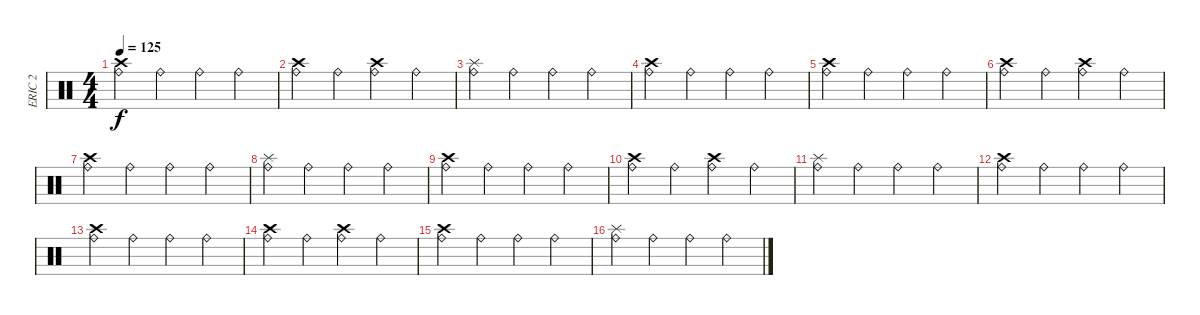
\track ("ERIC 2" "ERIC 2") {instrument percussion}
\staff {score}
\articulation defaults
\ts (4 4)
\tempo 125
\clef neutral
\ks c
("Crash high (hit)" "Ride (bell)").4{dy f} "Ride (bell)".4 "Ride (bell)".4 "Ride (bell)".4 |
("Crash high (hit)" "Ride (bell)").4 "Ride (bell)".4 ("Crash high (hit)" "Ride (bell)").4 "Ride (bell)".4 |
("Splash (hit)" "Ride (bell)").4 "Ride (bell)".4 "Ride (bell)".4 "Ride (bell)".4 |
("Crash high (hit)" "Ride (bell)").4 "Ride (bell)".4 "Ride (bell)".4 "Ride (bell)".4 |
("Crash high (hit)" "Ride (bell)").4 "Ride (bell)".4 "Ride (bell)".4 "Ride (bell)".4 |
("Crash high (hit)" "Ride (bell)").4 "Ride (bell)".4 ("Crash high (hit)" "Ride (bell)").4 "Ride (bell)".4 |
("Crash high (hit)" "Ride (bell)").4 "Ride (bell)".4 "Ride (bell)".4 "Ride (bell)".4 |
("Splash (hit)" "Ride (bell)").4 "Ride (bell)".4 "Ride (bell)".4 "Ride (bell)".4 |
("Crash high (hit)" "Ride (bell)").4 "Ride (bell)".4 "Ride (bell)".4 "Ride (bell)".4 |
("Crash high (hit)" "Ride (bell)").4 "Ride (bell)".4 ("Crash high (hit)" "Ride (bell)").4 "Ride (bell)".4 |
("Splash (hit)" "Ride (bell)").4 "Ride (bell)".4 "Ride (bell)".4 "Ride (bell)".4 |
("Crash high (hit)" "Ride (bell)").4 "Ride (bell)".4 "Ride (bell)".4 "Ride (bell)".4 |
("Crash high (hit)" "Ride (bell)").4 "Ride (bell)".4 "Ride (bell)".4 "Ride (bell)".4 |
("Crash high (hit)" "Ride (bell)").4 "Ride (bell)".4 ("Crash high (hit)" "Ride (bell)").4 "Ride (bell)".4 |
("Crash high (hit)" "Ride (bell)").4 "Ride (bell)".4 "Ride (bell)".4 "Ride (bell)".4 |
("Splash (hit)" "Ride (bell)").4 "Ride (bell)".4 "Ride (bell)".4 "Ride (bell)".4
